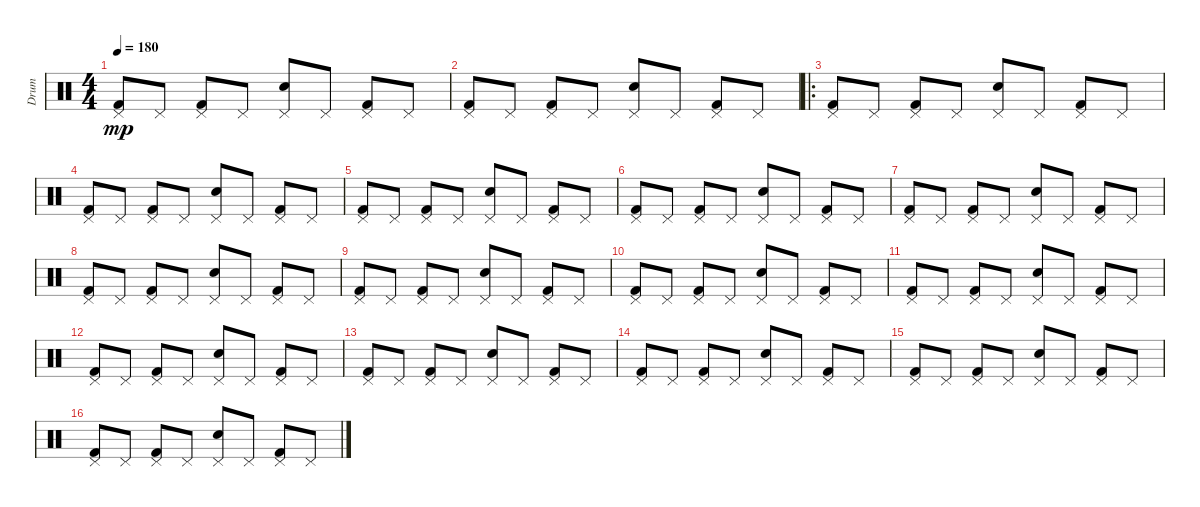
\track ("Drum" "Drum") {instrument percussion}
\staff {score}
\articulation defaults
\ts (4 4)
\tempo 180
\clef neutral
\ks c
("Pedal Hi-Hat (hit)" "Kick (hit) 2").8{dy mp} "Pedal Hi-Hat (hit)".8 ("Pedal Hi-Hat (hit)" "Kick (hit) 2").8 "Pedal Hi-Hat (hit)".8 ("Pedal Hi-Hat (hit)" "Snare (hit) 2").8 "Pedal Hi-Hat (hit)".8 ("Pedal Hi-Hat (hit)" "Kick (hit) 2").8 "Pedal Hi-Hat (hit)".8 |
("Pedal Hi-Hat (hit)" "Kick (hit) 2").8 "Pedal Hi-Hat (hit)".8 ("Pedal Hi-Hat (hit)" "Kick (hit) 2").8 "Pedal Hi-Hat (hit)".8 ("Pedal Hi-Hat (hit)" "Snare (hit) 2").8 "Pedal Hi-Hat (hit)".8 ("Pedal Hi-Hat (hit)" "Kick (hit) 2").8 "Pedal Hi-Hat (hit)".8 |
\ro
("Pedal Hi-Hat (hit)" "Kick (hit) 2").8 "Pedal Hi-Hat (hit)".8 ("Pedal Hi-Hat (hit)" "Kick (hit) 2").8 "Pedal Hi-Hat (hit)".8 ("Pedal Hi-Hat (hit)" "Snare (hit) 2").8 "Pedal Hi-Hat (hit)".8 ("Pedal Hi-Hat (hit)" "Kick (hit) 2").8 "Pedal Hi-Hat (hit)".8 |
("Pedal Hi-Hat (hit)" "Kick (hit) 2").8 "Pedal Hi-Hat (hit)".8 ("Pedal Hi-Hat (hit)" "Kick (hit) 2").8 "Pedal Hi-Hat (hit)".8 ("Pedal Hi-Hat (hit)" "Snare (hit) 2").8 "Pedal Hi-Hat (hit)".8 ("Pedal Hi-Hat (hit)" "Kick (hit) 2").8 "Pedal Hi-Hat (hit)".8 |
("Pedal Hi-Hat (hit)" "Kick (hit) 2").8 "Pedal Hi-Hat (hit)".8 ("Pedal Hi-Hat (hit)" "Kick (hit) 2").8 "Pedal Hi-Hat (hit)".8 ("Pedal Hi-Hat (hit)" "Snare (hit) 2").8 "Pedal Hi-Hat (hit)".8 ("Pedal Hi-Hat (hit)" "Kick (hit) 2").8 "Pedal Hi-Hat (hit)".8 |
("Pedal Hi-Hat (hit)" "Kick (hit) 2").8 "Pedal Hi-Hat (hit)".8 ("Pedal Hi-Hat (hit)" "Kick (hit) 2").8 "Pedal Hi-Hat (hit)".8 ("Pedal Hi-Hat (hit)" "Snare (hit) 2").8 "Pedal Hi-Hat (hit)".8 ("Pedal Hi-Hat (hit)" "Kick (hit) 2").8 "Pedal Hi-Hat (hit)".8 |
("Pedal Hi-Hat (hit)" "Kick (hit) 2").8 "Pedal Hi-Hat (hit)".8 ("Pedal Hi-Hat (hit)" "Kick (hit) 2").8 "Pedal Hi-Hat (hit)".8 ("Pedal Hi-Hat (hit)" "Snare (hit) 2").8 "Pedal Hi-Hat (hit)".8 ("Pedal Hi-Hat (hit)" "Kick (hit) 2").8 "Pedal Hi-Hat (hit)".8 |
("Pedal Hi-Hat (hit)" "Kick (hit) 2").8 "Pedal Hi-Hat (hit)".8 ("Pedal Hi-Hat (hit)" "Kick (hit) 2").8 "Pedal Hi-Hat (hit)".8 ("Pedal Hi-Hat (hit)" "Snare (hit) 2").8 "Pedal Hi-Hat (hit)".8 ("Pedal Hi-Hat (hit)" "Kick (hit) 2").8 "Pedal Hi-Hat (hit)".8 |
("Pedal Hi-Hat (hit)" "Kick (hit) 2").8 "Pedal Hi-Hat (hit)".8 ("Pedal Hi-Hat (hit)" "Kick (hit) 2").8 "Pedal Hi-Hat (hit)".8 ("Pedal Hi-Hat (hit)" "Snare (hit) 2").8 "Pedal Hi-Hat (hit)".8 ("Pedal Hi-Hat (hit)" "Kick (hit) 2").8 "Pedal Hi-Hat (hit)".8 |
("Pedal Hi-Hat (hit)" "Kick (hit) 2").8 "Pedal Hi-Hat (hit)".8 ("Pedal Hi-Hat (hit)" "Kick (hit) 2").8 "Pedal Hi-Hat (hit)".8 ("Pedal Hi-Hat (hit)" "Snare (hit) 2").8 "Pedal Hi-Hat (hit)".8 ("Pedal Hi-Hat (hit)" "Kick (hit) 2").8 "Pedal Hi-Hat (hit)".8 |
("Pedal Hi-Hat (hit)" "Kick (hit) 2").8 "Pedal Hi-Hat (hit)".8 ("Pedal Hi-Hat (hit)" "Kick (hit) 2").8 "Pedal Hi-Hat (hit)".8 ("Pedal Hi-Hat (hit)" "Snare (hit) 2").8 "Pedal Hi-Hat (hit)".8 ("Pedal Hi-Hat (hit)" "Kick (hit) 2").8 "Pedal Hi-Hat (hit)".8 |
("Pedal Hi-Hat (hit)" "Kick (hit) 2").8 "Pedal Hi-Hat (hit)".8 ("Pedal Hi-Hat (hit)" "Kick (hit) 2").8 "Pedal Hi-Hat (hit)".8 ("Pedal Hi-Hat (hit)" "Snare (hit) 2").8 "Pedal Hi-Hat (hit)".8 ("Pedal Hi-Hat (hit)" "Kick (hit) 2").8 "Pedal Hi-Hat (hit)".8 |
("Pedal Hi-Hat (hit)" "Kick (hit) 2").8 "Pedal Hi-Hat (hit)".8 ("Pedal Hi-Hat (hit)" "Kick (hit) 2").8 "Pedal Hi-Hat (hit)".8 ("Pedal Hi-Hat (hit)" "Snare (hit) 2").8 "Pedal Hi-Hat (hit)".8 ("Pedal Hi-Hat (hit)" "Kick (hit) 2").8 "Pedal Hi-Hat (hit)".8 |
("Pedal Hi-Hat (hit)" "Kick (hit) 2").8 "Pedal Hi-Hat (hit)".8 ("Pedal Hi-Hat (hit)" "Kick (hit) 2").8 "Pedal Hi-Hat (hit)".8 ("Pedal Hi-Hat (hit)" "Snare (hit) 2").8 "Pedal Hi-Hat (hit)".8 ("Pedal Hi-Hat (hit)" "Kick (hit) 2").8 "Pedal Hi-Hat (hit)".8 |
("Pedal Hi-Hat (hit)" "Kick (hit) 2").8 "Pedal Hi-Hat (hit)".8 ("Pedal Hi-Hat (hit)" "Kick (hit) 2").8 "Pedal Hi-Hat (hit)".8 ("Pedal Hi-Hat (hit)" "Snare (hit) 2").8 "Pedal Hi-Hat (hit)".8 ("Pedal Hi-Hat (hit)" "Kick (hit) 2").8 "Pedal Hi-Hat (hit)".8 |
("Pedal Hi-Hat (hit)" "Kick (hit) 2").8 "Pedal Hi-Hat (hit)".8 ("Pedal Hi-Hat (hit)" "Kick (hit) 2").8 "Pedal Hi-Hat (hit)".8 ("Pedal Hi-Hat (hit)" "Snare (hit) 2").8 "Pedal Hi-Hat (hit)".8 ("Pedal Hi-Hat (hit)" "Kick (hit) 2").8 "Pedal Hi-Hat (hit)".8
